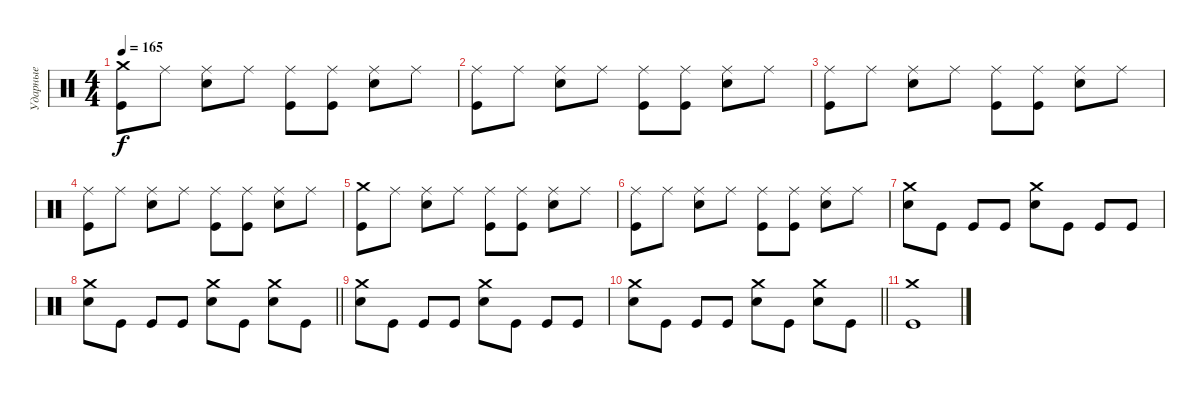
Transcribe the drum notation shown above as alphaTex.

\track ("Ударные" "Ударные") {instrument percussion}
\staff {score}
\articulation defaults
\ts (4 4)
\tempo 165
\clef neutral
\ks c
("Crash medium (hit)" "Kick (hit)").8{dy f} "Ride (middle)".8 ("Ride (middle)" "Electric Snare (hit)").8 "Ride (middle)".8 ("Ride (middle)" "Kick (hit)").8 ("Ride (middle)" "Kick (hit)").8 ("Ride (middle)" "Electric Snare (hit)").8 "Ride (middle)".8 |
("Ride (middle)" "Kick (hit)").8 "Ride (middle)".8 ("Ride (middle)" "Electric Snare (hit)").8 "Ride (middle)".8 ("Ride (middle)" "Kick (hit)").8 ("Ride (middle)" "Kick (hit)").8 ("Ride (middle)" "Electric Snare (hit)").8 "Ride (middle)".8 |
("Ride (middle)" "Kick (hit)").8 "Ride (middle)".8 ("Ride (middle)" "Electric Snare (hit)").8 "Ride (middle)".8 ("Ride (middle)" "Kick (hit)").8 ("Ride (middle)" "Kick (hit)").8 ("Ride (middle)" "Electric Snare (hit)").8 "Ride (middle)".8 |
("Ride (middle)" "Kick (hit)").8 "Ride (middle)".8 ("Ride (middle)" "Electric Snare (hit)").8 "Ride (middle)".8 ("Ride (middle)" "Kick (hit)").8 ("Ride (middle)" "Kick (hit)").8 ("Ride (middle)" "Electric Snare (hit)").8 "Ride (middle)".8 |
("Crash medium (hit)" "Kick (hit)").8 "Ride (middle)".8 ("Ride (middle)" "Electric Snare (hit)").8 "Ride (middle)".8 ("Ride (middle)" "Kick (hit)").8 ("Ride (middle)" "Kick (hit)").8 ("Ride (middle)" "Electric Snare (hit)").8 "Ride (middle)".8 |
("Ride (middle)" "Kick (hit)").8 "Ride (middle)".8 ("Ride (middle)" "Electric Snare (hit)").8 "Ride (middle)".8 ("Ride (middle)" "Kick (hit)").8 ("Ride (middle)" "Kick (hit)").8 ("Ride (middle)" "Electric Snare (hit)").8 "Ride (middle)".8 |
("Crash medium (hit)" "Electric Snare (hit)").8 "Kick (hit)".8 "Kick (hit)".8 "Kick (hit)".8 ("Crash medium (hit)" "Electric Snare (hit)").8 "Kick (hit)".8 "Kick (hit)".8 "Kick (hit)".8 |
\barLineRight lightlight
("Crash medium (hit)" "Electric Snare (hit)").8 "Kick (hit)".8 "Kick (hit)".8 "Kick (hit)".8 ("Crash medium (hit)" "Electric Snare (hit)").8 "Kick (hit)".8 ("Crash medium (hit)" "Electric Snare (hit)").8 "Kick (hit)".8 |
("Crash medium (hit)" "Electric Snare (hit)").8 "Kick (hit)".8 "Kick (hit)".8 "Kick (hit)".8 ("Crash medium (hit)" "Electric Snare (hit)").8 "Kick (hit)".8 "Kick (hit)".8 "Kick (hit)".8 |
\barLineRight lightlight
("Crash medium (hit)" "Electric Snare (hit)").8 "Kick (hit)".8 "Kick (hit)".8 "Kick (hit)".8 ("Crash medium (hit)" "Electric Snare (hit)").8 "Kick (hit)".8 ("Crash medium (hit)" "Electric Snare (hit)").8 "Kick (hit)".8 |
("Crash medium (hit)" "Kick (hit)").1
